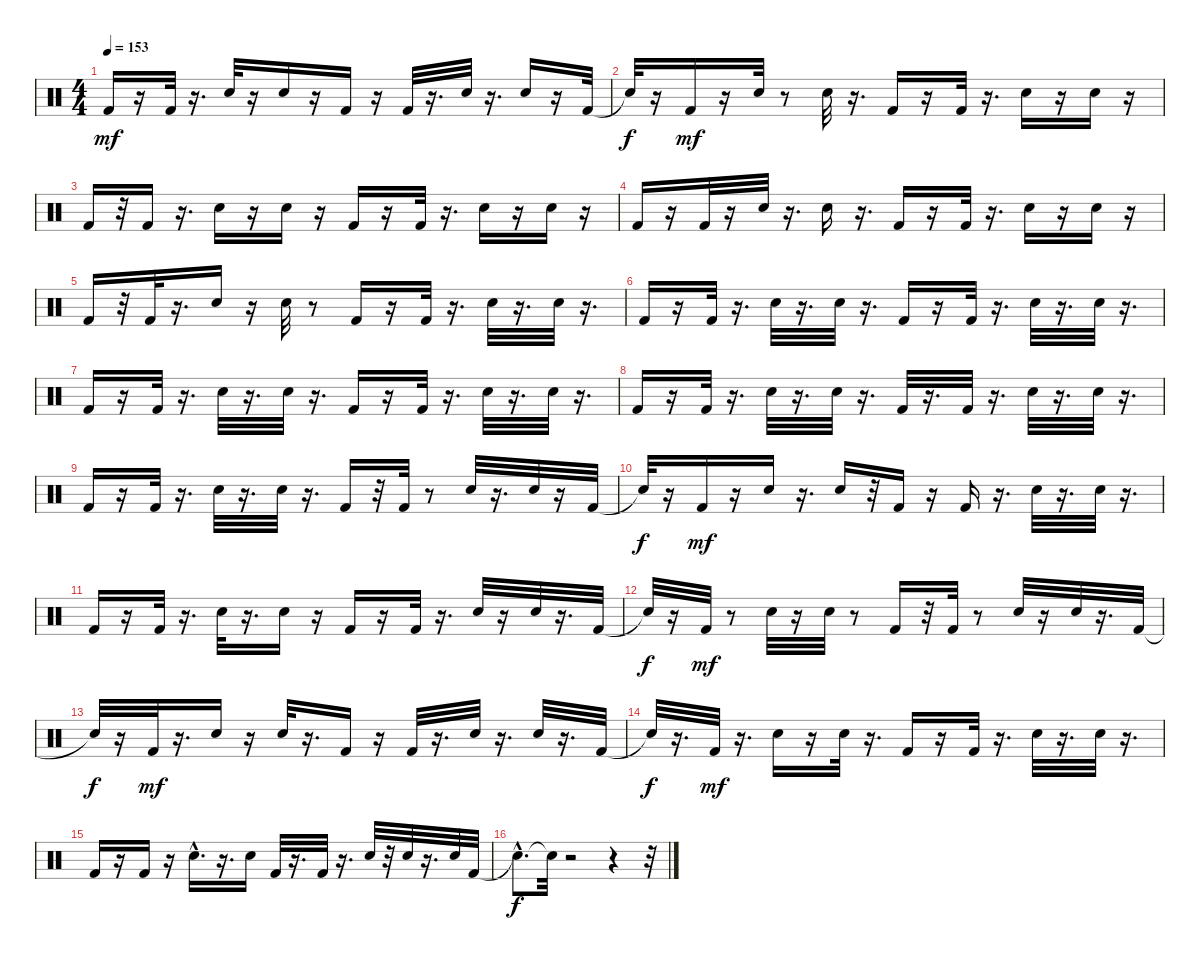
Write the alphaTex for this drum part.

\track "" {instrument percussion}
\staff {score}
\articulation defaults
\ts (4 4)
\tempo 153
\clef neutral
\ks c "Kick (hit) 2".16{dy mf}
r.16 "Kick (hit) 2".32 r.16{d} "Snare (hit) 2".32 r.16 "Snare (hit) 2".16 r.16 "Kick (hit) 2".16 r.16 "Kick (hit) 2".32 r.16{d} "Snare (hit) 2".32 r.16{d} "Snare (hit) 2".16 r.16 "Kick (hit) 2".32 |
"Snare (hit)"{t}.32{dy f} r.16 "Kick (hit) 2".16{dy mf} r.16 "Snare (hit) 2".32 r.8 "Snare (hit) 2".32 r.16{d} "Kick (hit) 2".16 r.16 "Kick (hit) 2".32 r.16{d} "Snare (hit) 2".16 r.16 "Snare (hit) 2".16 r.16 |
"Kick (hit) 2".16 r.32 "Kick (hit) 2".16 r.16{d} "Snare (hit) 2".16 r.16 "Snare (hit) 2".16 r.16 "Kick (hit) 2".16 r.16 "Kick (hit) 2".32 r.16{d} "Snare (hit) 2".16 r.16 "Snare (hit) 2".16 r.16 |
"Kick (hit) 2".16 r.16 "Kick (hit) 2".32 r.16 "Snare (hit) 2".32 r.16{d} "Snare (hit) 2".16 r.16{d} "Kick (hit) 2".16 r.16 "Kick (hit) 2".32 r.16{d} "Snare (hit) 2".16 r.16 "Snare (hit) 2".16 r.16 |
"Kick (hit) 2".16 r.32 "Kick (hit) 2".32 r.16{d} "Snare (hit) 2".16 r.16 "Snare (hit) 2".32 r.8 "Kick (hit) 2".16 r.16 "Kick (hit) 2".32 r.16{d} "Snare (hit) 2".32 r.16{d} "Snare (hit) 2".32 r.16{d} |
"Kick (hit) 2".16 r.16 "Kick (hit) 2".32 r.16{d} "Snare (hit) 2".32 r.16{d} "Snare (hit) 2".32 r.16{d} "Kick (hit) 2".16 r.16 "Kick (hit) 2".32 r.16{d} "Snare (hit) 2".32 r.16{d} "Snare (hit) 2".32 r.16{d} |
"Kick (hit) 2".16 r.16 "Kick (hit) 2".32 r.16{d} "Snare (hit) 2".32 r.16{d} "Snare (hit) 2".32 r.16{d} "Kick (hit) 2".16 r.16 "Kick (hit) 2".32 r.16{d} "Snare (hit) 2".32 r.16{d} "Snare (hit) 2".32 r.16{d} |
"Kick (hit) 2".16 r.16 "Kick (hit) 2".32 r.16{d} "Snare (hit) 2".32 r.16{d} "Snare (hit) 2".32 r.16{d} "Kick (hit) 2".32 r.16{d} "Kick (hit) 2".32 r.16{d} "Snare (hit) 2".32 r.16{d} "Snare (hit) 2".32 r.16{d} |
"Kick (hit) 2".16 r.16 "Kick (hit) 2".32 r.16{d} "Snare (hit) 2".32 r.16{d} "Snare (hit) 2".32 r.16{d} "Kick (hit) 2".16 r.32 "Kick (hit) 2".32 r.8 "Snare (hit) 2".32 r.16{d} "Snare (hit) 2".32 r.16 "Kick (hit) 2".32 |
"Snare (hit)"{t}.32{dy f} r.16 "Kick (hit) 2".16{dy mf} r.16 "Snare (hit) 2".16 r.16{d} "Snare (hit) 2".16 r.32 "Kick (hit) 2".16 r.16 "Kick (hit) 2".16 r.16{d} "Snare (hit) 2".32 r.16{d} "Snare (hit) 2".32 r.16{d} |
"Kick (hit) 2".16 r.16 "Kick (hit) 2".32 r.16{d} "Snare (hit) 2".32 r.16{d} "Snare (hit) 2".16 r.16 "Kick (hit) 2".16 r.16 "Kick (hit) 2".32 r.16{d} "Snare (hit) 2".32 r.16 "Snare (hit) 2".32 r.16{d} "Kick (hit) 2".32 |
"Snare (hit)"{t}.32{dy f} r.16 "Kick (hit) 2".32{dy mf} r.8 "Snare (hit) 2".32 r.16 "Snare (hit) 2".32 r.8 "Kick (hit) 2".16 r.32 "Kick (hit) 2".32 r.8 "Snare (hit) 2".32 r.16 "Snare (hit) 2".32 r.16{d} "Kick (hit) 2".32 |
"Snare (hit)"{t}.32{dy f} r.16 "Kick (hit) 2".32{dy mf} r.16{d} "Snare (hit) 2".16 r.16 "Snare (hit) 2".32 r.16{d} "Kick (hit) 2".16 r.16 "Kick (hit) 2".32 r.16{d} "Snare (hit) 2".32 r.16{d} "Snare (hit) 2".32 r.16{d} "Kick (hit) 2".32 |
"Snare (hit)"{t}.32{dy f} r.16{d} "Kick (hit) 2".32{dy mf} r.16{d} "Snare (hit) 2".16 r.16 "Snare (hit) 2".32 r.16{d} "Kick (hit) 2".16 r.16 "Kick (hit) 2".32 r.16{d} "Snare (hit) 2".32 r.16{d} "Snare (hit) 2".32 r.16{d} |
"Kick (hit) 2".16 r.16 "Kick (hit) 2".16 r.16 "Snare (hit) 2"{hac}.16{d} r.16{d} "Snare (hit) 2".16 "Kick (hit) 2".32 r.16{d} "Kick (hit) 2".32 r.16{d} "Snare (hit) 2".32 r.32 "Snare (hit) 2".32 r.16{d} "Snare (hit) 2".32 "Kick (hit) 2".32 |
"Snare (hit)"{hac t}.8{d dy f} "Snare (hit)"{t}.32 r.2 r.4 r.32
